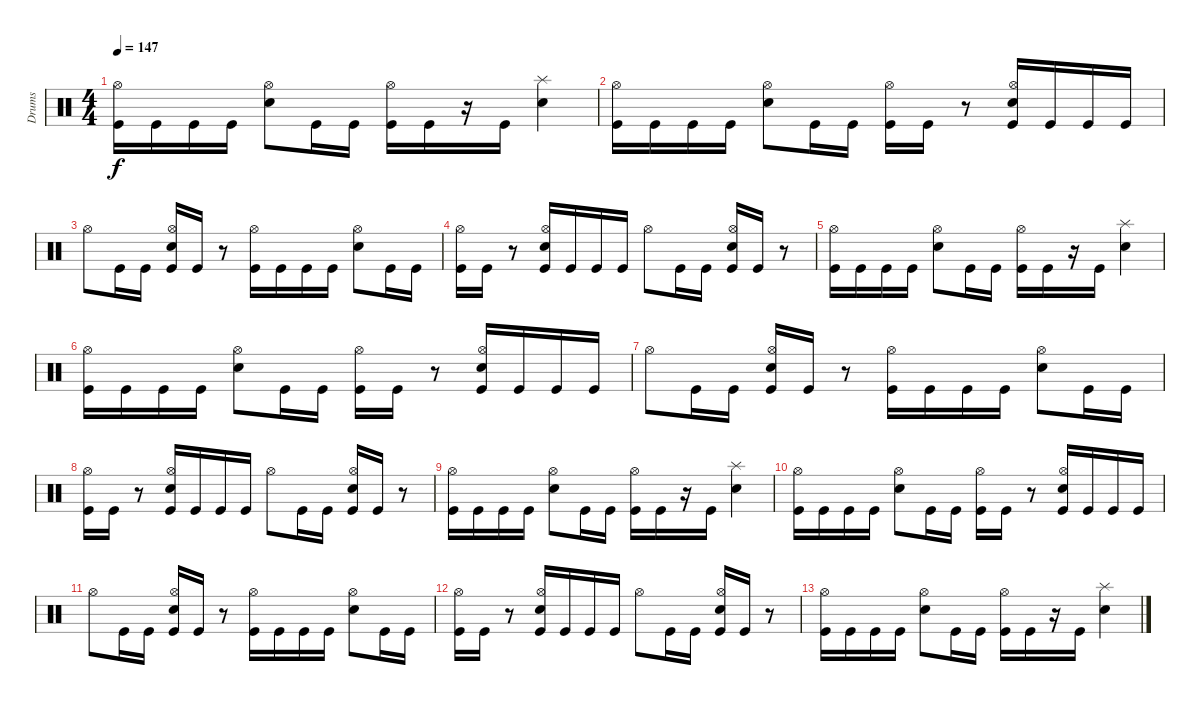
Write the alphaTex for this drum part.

\track ("Drums" "Drums") {instrument percussion}
\staff {score}
\articulation defaults
\ts (4 4)
\tempo 147
\clef neutral
\ks c
("Kick (hit)" "Hi-Hat (open)").16{dy f} "Kick (hit)".16 "Kick (hit)".16 "Kick (hit)".16 ("Hi-Hat (open)" "Snare (hit) 2").8 "Kick (hit)".16 "Kick (hit)".16 ("Hi-Hat (open)" "Kick (hit)").16 "Kick (hit)".16 r.16 "Kick (hit)".16 ("Splash (hit)" "Snare (hit) 2").4 |
("Kick (hit)" "Hi-Hat (open)").16 "Kick (hit)".16 "Kick (hit)".16 "Kick (hit)".16 ("Hi-Hat (open)" "Snare (hit) 2").8 "Kick (hit)".16 "Kick (hit)".16 ("Kick (hit)" "Hi-Hat (open)").16 "Kick (hit)".16 r.8 ("Snare (hit) 2" "Kick (hit)" "Hi-Hat (open)").16 "Kick (hit)".16 "Kick (hit)".16 "Kick (hit)".16 |
"Hi-Hat (open)".8 "Kick (hit)".16 "Kick (hit)".16 ("Hi-Hat (open)" "Snare (hit) 2" "Kick (hit)").16 "Kick (hit)".16 r.8 ("Kick (hit)" "Hi-Hat (open)").16 "Kick (hit)".16 "Kick (hit)".16 "Kick (hit)".16 ("Snare (hit) 2" "Hi-Hat (open)").8 "Kick (hit)".16 "Kick (hit)".16 |
("Kick (hit)" "Hi-Hat (open)").16 "Kick (hit)".16 r.8 ("Snare (hit) 2" "Hi-Hat (open)" "Kick (hit)").16 "Kick (hit)".16 "Kick (hit)".16 "Kick (hit)".16 "Hi-Hat (open)".8 "Kick (hit)".16 "Kick (hit)".16 ("Snare (hit) 2" "Hi-Hat (open)" "Kick (hit)").16 "Kick (hit)".16 r.8 |
("Hi-Hat (open)" "Kick (hit)").16 "Kick (hit)".16 "Kick (hit)".16 "Kick (hit)".16 ("Hi-Hat (open)" "Snare (hit) 2").8 "Kick (hit)".16 "Kick (hit)".16 ("Kick (hit)" "Hi-Hat (open)").16 "Kick (hit)".16 r.16 "Kick (hit)".16 ("Splash (hit)" "Snare (hit) 2").4 |
("Hi-Hat (open)" "Kick (hit)").16 "Kick (hit)".16 "Kick (hit)".16 "Kick (hit)".16 ("Snare (hit) 2" "Hi-Hat (open)").8 "Kick (hit)".16 "Kick (hit)".16 ("Hi-Hat (open)" "Kick (hit)").16 "Kick (hit)".16 r.8 ("Hi-Hat (open)" "Snare (hit) 2" "Kick (hit)").16 "Kick (hit)".16 "Kick (hit)".16 "Kick (hit)".16 |
"Hi-Hat (open)".8 "Kick (hit)".16 "Kick (hit)".16 ("Snare (hit) 2" "Kick (hit)" "Hi-Hat (open)").16 "Kick (hit)".16 r.8 ("Hi-Hat (open)" "Kick (hit)").16 "Kick (hit)".16 "Kick (hit)".16 "Kick (hit)".16 ("Hi-Hat (open)" "Snare (hit) 2").8 "Kick (hit)".16 "Kick (hit)".16 |
("Kick (hit)" "Hi-Hat (open)").16 "Kick (hit)".16 r.8 ("Hi-Hat (open)" "Kick (hit)" "Snare (hit) 2").16 "Kick (hit)".16 "Kick (hit)".16 "Kick (hit)".16 "Hi-Hat (open)".8 "Kick (hit)".16 "Kick (hit)".16 ("Hi-Hat (open)" "Kick (hit)" "Snare (hit) 2").16 "Kick (hit)".16 r.8 |
("Kick (hit)" "Hi-Hat (open)").16 "Kick (hit)".16 "Kick (hit)".16 "Kick (hit)".16 ("Hi-Hat (open)" "Snare (hit) 2").8 "Kick (hit)".16 "Kick (hit)".16 ("Hi-Hat (open)" "Kick (hit)").16 "Kick (hit)".16 r.16 "Kick (hit)".16 ("Snare (hit) 2" "Splash (hit)").4 |
("Kick (hit)" "Hi-Hat (open)").16 "Kick (hit)".16 "Kick (hit)".16 "Kick (hit)".16 ("Hi-Hat (open)" "Snare (hit) 2").8 "Kick (hit)".16 "Kick (hit)".16 ("Hi-Hat (open)" "Kick (hit)").16 "Kick (hit)".16 r.8 ("Snare (hit) 2" "Kick (hit)" "Hi-Hat (open)").16 "Kick (hit)".16 "Kick (hit)".16 "Kick (hit)".16 |
"Hi-Hat (open)".8 "Kick (hit)".16 "Kick (hit)".16 ("Kick (hit)" "Hi-Hat (open)" "Snare (hit) 2").16 "Kick (hit)".16 r.8 ("Kick (hit)" "Hi-Hat (open)").16 "Kick (hit)".16 "Kick (hit)".16 "Kick (hit)".16 ("Hi-Hat (open)" "Snare (hit) 2").8 "Kick (hit)".16 "Kick (hit)".16 |
("Kick (hit)" "Hi-Hat (open)").16 "Kick (hit)".16 r.8 ("Hi-Hat (open)" "Snare (hit) 2" "Kick (hit)").16 "Kick (hit)".16 "Kick (hit)".16 "Kick (hit)".16 "Hi-Hat (open)".8 "Kick (hit)".16 "Kick (hit)".16 ("Snare (hit) 2" "Kick (hit)" "Hi-Hat (open)").16 "Kick (hit)".16 r.8 |
("Hi-Hat (open)" "Kick (hit)").16 "Kick (hit)".16 "Kick (hit)".16 "Kick (hit)".16 ("Snare (hit) 2" "Hi-Hat (open)").8 "Kick (hit)".16 "Kick (hit)".16 ("Hi-Hat (open)" "Kick (hit)").16 "Kick (hit)".16 r.16 "Kick (hit)".16 ("Splash (hit)" "Snare (hit) 2").4
